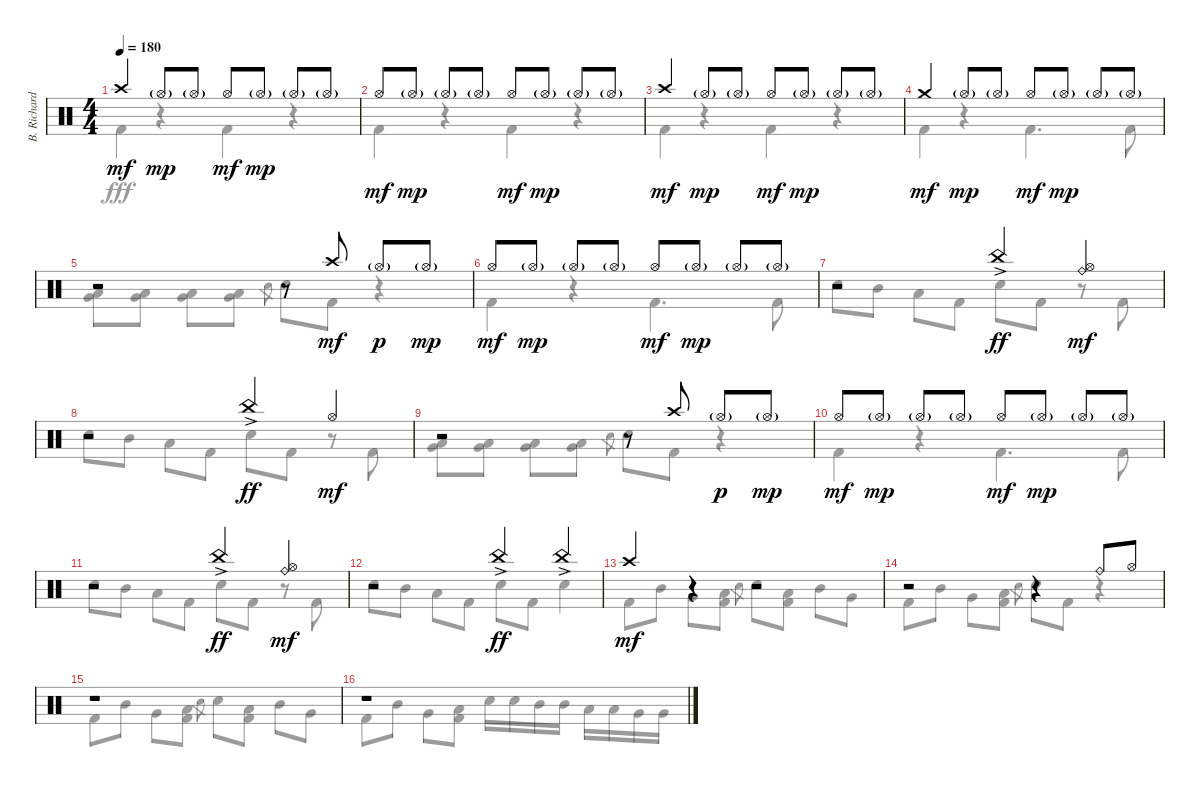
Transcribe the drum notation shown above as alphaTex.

\track ("B. Richardson Drums" "B. Richard") {instrument percussion}
\staff {score}
\articulation defaults
\voice
\ts (4 4)
\tempo 180
\clef neutral
\ks c "Crash high (hit)".4{dy mf} "Hi-Hat (open)"{g}.8{dy mp} "Hi-Hat (open)"{g}.8 "Hi-Hat (open)".8{dy mf} "Hi-Hat (open)"{g}.8{dy mp} "Hi-Hat (open)"{g}.8 "Hi-Hat (open)"{g}.8
|
"Hi-Hat (open)".8{dy mf} "Hi-Hat (open)"{g}.8{dy mp} "Hi-Hat (open)"{g}.8 "Hi-Hat (open)"{g}.8 "Hi-Hat (open)".8{dy mf} "Hi-Hat (open)"{g}.8{dy mp} "Hi-Hat (open)"{g}.8 "Hi-Hat (open)"{g}.8 |
"Crash high (hit)".4{dy mf} "Hi-Hat (open)"{g}.8{dy mp} "Hi-Hat (open)"{g}.8 "Hi-Hat (open)".8{dy mf} "Hi-Hat (open)"{g}.8{dy mp} "Hi-Hat (open)"{g}.8 "Hi-Hat (open)"{g}.8 |
"Crash medium (hit)".4{dy mf} "Hi-Hat (open)"{g}.8{dy mp} "Hi-Hat (open)"{g}.8 "Hi-Hat (open)".8{dy mf} "Hi-Hat (open)"{g}.8{dy mp} "Hi-Hat (open)"{g}.8 "Hi-Hat (open)"{g}.8 |
r.2 r.8 "Crash high (hit)".8{dy mf} "Hi-Hat (open)"{g}.8{dy p} "Hi-Hat (open)"{g}.8{dy mp} |
"Hi-Hat (open)".8{dy mf} "Hi-Hat (open)"{g}.8{dy mp} "Hi-Hat (open)"{g}.8 "Hi-Hat (open)"{g}.8 "Hi-Hat (open)".8{dy mf} "Hi-Hat (open)"{g}.8{dy mp} "Hi-Hat (open)"{g}.8 "Hi-Hat (open)"{g}.8 |
r.2 "China (hit)"{ac}.4{dy ff} ("Ride (bell)" "Hi-Hat (open)").4{dy mf} |
r.2 "China (hit)"{ac}.4{dy ff} "Hi-Hat (open)".4{dy mf} |
r.2 r.8 "Crash high (hit)".8 "Hi-Hat (open)"{g}.8{dy p} "Hi-Hat (open)"{g}.8{dy mp} |
"Hi-Hat (open)".8{dy mf} "Hi-Hat (open)"{g}.8{dy mp} "Hi-Hat (open)"{g}.8 "Hi-Hat (open)"{g}.8 "Hi-Hat (open)".8{dy mf} "Hi-Hat (open)"{g}.8{dy mp} "Hi-Hat (open)"{g}.8 "Hi-Hat (open)"{g}.8 |
r.2 "China (hit)"{ac}.4{dy ff} ("Ride (bell)" "Hi-Hat (open)").4{dy mf} |
r.2 "China (hit)"{ac}.4{dy ff} "China (hit)"{ac}.4 |
"Crash high (hit)".4{dy mf} r.4 r.2 |
r.2 r.4 "Ride (bell)".8 "Hi-Hat (open)".8 |
r.1 |
r.1
\voice
\clef neutral
\ottava regular
\simile none
\ks c "Kick (hit) 2".4{dy fff}
r.4 "Kick (hit) 2".4 r.4 |
"Kick (hit) 2".4 r.4 "Kick (hit) 2".4 r.4 |
"Kick (hit) 2".4 r.4 "Kick (hit) 2".4 r.4 |
"Kick (hit) 2".4 r.4 "Kick (hit) 2".4{d} "Kick (hit) 2".8 |
("Low Tom (hit)" "Very Low Tom (hit)").8 ("Low Tom (hit)" "Very Low Tom (hit)").8 ("Low Tom (hit)" "Very Low Tom (hit)").8 ("Low Tom (hit)" "Very Low Tom (hit)").8 "Electric Snare (hit)".8{gr} "Electric Snare (hit)".8 "Kick (hit) 2".8 r.4 |
"Kick (hit) 2".4 r.4 "Kick (hit) 2".4{d} "Kick (hit) 2".8 |
"Electric Snare (hit)".8 "Mid Tom (hit)".8 "Low Tom (hit)".8 "Kick (hit) 2".8 "Electric Snare (hit)".8 "Kick (hit) 2".8 r.8 "Kick (hit) 2".8 |
"Electric Snare (hit)".8 "Mid Tom (hit)".8 "Low Tom (hit)".8 "Kick (hit) 2".8 "Electric Snare (hit)".8 "Kick (hit) 2".8 r.8 "Kick (hit) 2".8 |
("Low Tom (hit)" "Very Low Tom (hit)").8 ("Low Tom (hit)" "Very Low Tom (hit)").8 ("Low Tom (hit)" "Very Low Tom (hit)").8 ("Low Tom (hit)" "Very Low Tom (hit)").8 "Electric Snare (hit)".8{gr} "Electric Snare (hit)".8 "Kick (hit) 2".8 r.4 |
"Kick (hit) 2".4 r.4 "Kick (hit) 2".4{d} "Kick (hit) 2".8 |
"Electric Snare (hit)".8 "Mid Tom (hit)".8 "Low Tom (hit)".8 "Kick (hit) 2".8 "Electric Snare (hit)".8 "Kick (hit) 2".8 r.8 "Kick (hit) 2".8 |
"Electric Snare (hit)".8 "Mid Tom (hit)".8 "Low Tom (hit)".8 "Kick (hit) 2".8 "Electric Snare (hit)".8 "Kick (hit) 2".8 "Electric Snare (hit)".4 |
"Kick (hit) 2".8 "Mid Tom (hit)".8 "Very Low Tom (hit)".8 ("Low Tom (hit)" "Kick (hit) 2").8 "Electric Snare (hit)".8{gr} "Electric Snare (hit)".8 ("Low Tom (hit)" "Kick (hit) 2").8 "Mid Tom (hit)".8 "Very Low Tom (hit)".8 |
"Kick (hit) 2".8 "Mid Tom (hit)".8 "Very Low Tom (hit)".8 ("Low Tom (hit)" "Kick (hit) 2").8 "Electric Snare (hit)".8{gr} "Electric Snare (hit)".8 "Kick (hit) 2".8 r.4 |
"Kick (hit) 2".8 "Mid Tom (hit)".8 "Very Low Tom (hit)".8 ("Low Tom (hit)" "Kick (hit) 2").8 "Electric Snare (hit)".8{gr} "Electric Snare (hit)".8 ("Low Tom (hit)" "Kick (hit) 2").8 "Mid Tom (hit)".8 "Very Low Tom (hit)".8 |
"Kick (hit) 2".8 "Mid Tom (hit)".8 "Very Low Tom (hit)".8 ("Low Tom (hit)" "Kick (hit) 2").8 "Electric Snare (hit)".16 "Electric Snare (hit)".16 "Mid Tom (hit)".16 "Mid Tom (hit)".16 "Low Tom (hit)".16 "Low Tom (hit)".16 "Very Low Tom (hit)".16 "Very Low Tom (hit)".16
